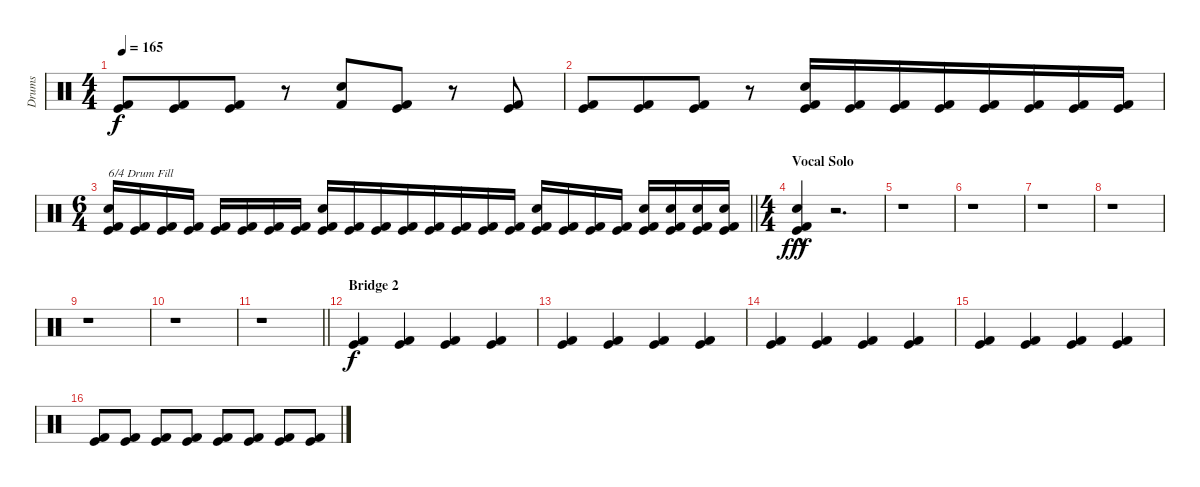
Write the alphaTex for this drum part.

\track ("Drums" "Drums") {instrument percussion}
\staff {score}
\articulation defaults
\ts (4 4)
\tempo 165
\clef neutral
\ks c
("Kick (hit)" "Kick (hit) 2").8{dy f} ("Kick (hit)" "Kick (hit) 2").8{beam merge} ("Kick (hit)" "Kick (hit) 2").8 r.8 ("Snare (hit) 2" "Kick (hit) 2").8 ("Kick (hit)" "Kick (hit) 2").8 r.8 ("Kick (hit)" "Kick (hit) 2").8 |
("Kick (hit)" "Kick (hit) 2").8 ("Kick (hit)" "Kick (hit) 2").8{beam merge} ("Kick (hit)" "Kick (hit) 2").8 r.8 ("Snare (hit) 2" "Kick (hit)" "Kick (hit) 2").16 ("Kick (hit)" "Kick (hit) 2").16 ("Kick (hit)" "Kick (hit) 2").16 ("Kick (hit)" "Kick (hit) 2").16{beam merge} ("Kick (hit)" "Kick (hit) 2").16 ("Kick (hit)" "Kick (hit) 2").16 ("Kick (hit)" "Kick (hit) 2").16 ("Kick (hit)" "Kick (hit) 2").16 |
\ts (6 4)
\barLineRight lightlight
("Snare (hit) 2" "Kick (hit)" "Kick (hit) 2").16{txt "6/4 Drum Fill"} ("Kick (hit)" "Kick (hit) 2").16 ("Kick (hit)" "Kick (hit) 2").16 ("Kick (hit)" "Kick (hit) 2").16 ("Kick (hit)" "Kick (hit) 2").16 ("Kick (hit)" "Kick (hit) 2").16 ("Kick (hit)" "Kick (hit) 2").16 ("Kick (hit)" "Kick (hit) 2").16 ("Snare (hit) 2" "Kick (hit)" "Kick (hit) 2").16 ("Kick (hit)" "Kick (hit) 2").16 ("Kick (hit)" "Kick (hit) 2").16 ("Kick (hit)" "Kick (hit) 2").16{beam merge} ("Kick (hit)" "Kick (hit) 2").16 ("Kick (hit)" "Kick (hit) 2").16 ("Kick (hit)" "Kick (hit) 2").16 ("Kick (hit)" "Kick (hit) 2").16 ("Snare (hit) 2" "Kick (hit)" "Kick (hit) 2").16 ("Kick (hit)" "Kick (hit) 2").16 ("Kick (hit)" "Kick (hit) 2").16 ("Kick (hit)" "Kick (hit) 2").16 ("Snare (hit) 2" "Kick (hit)" "Kick (hit) 2").16 ("Snare (hit) 2" "Kick (hit)" "Kick (hit) 2").16 ("Snare (hit) 2" "Kick (hit)" "Kick (hit) 2").16 ("Snare (hit) 2" "Kick (hit)" "Kick (hit) 2").16 |
\ts (4 4)
\section ("" "Vocal Solo")
("Snare (hit) 2"{hac} "Kick (hit)" "Kick (hit) 2").4{dy fff} r.2{d} |
r.1 |
r.1 |
r.1 |
r.1 |
r.1 |
r.1 |
\barLineRight lightlight
r.1 |
\section ("" "Bridge 2")
("Kick (hit)" "Kick (hit) 2").4{dy f} ("Kick (hit)" "Kick (hit) 2").4 ("Kick (hit)" "Kick (hit) 2").4 ("Kick (hit)" "Kick (hit) 2").4 |
("Kick (hit)" "Kick (hit) 2").4 ("Kick (hit)" "Kick (hit) 2").4 ("Kick (hit)" "Kick (hit) 2").4 ("Kick (hit)" "Kick (hit) 2").4 |
("Kick (hit)" "Kick (hit) 2").4 ("Kick (hit)" "Kick (hit) 2").4 ("Kick (hit)" "Kick (hit) 2").4 ("Kick (hit)" "Kick (hit) 2").4 |
("Kick (hit)" "Kick (hit) 2").4 ("Kick (hit)" "Kick (hit) 2").4 ("Kick (hit)" "Kick (hit) 2").4 ("Kick (hit)" "Kick (hit) 2").4 |
("Kick (hit)" "Kick (hit) 2").8 ("Kick (hit)" "Kick (hit) 2").8 ("Kick (hit)" "Kick (hit) 2").8 ("Kick (hit)" "Kick (hit) 2").8 ("Kick (hit)" "Kick (hit) 2").8 ("Kick (hit)" "Kick (hit) 2").8 ("Kick (hit)" "Kick (hit) 2").8 ("Kick (hit)" "Kick (hit) 2").8
